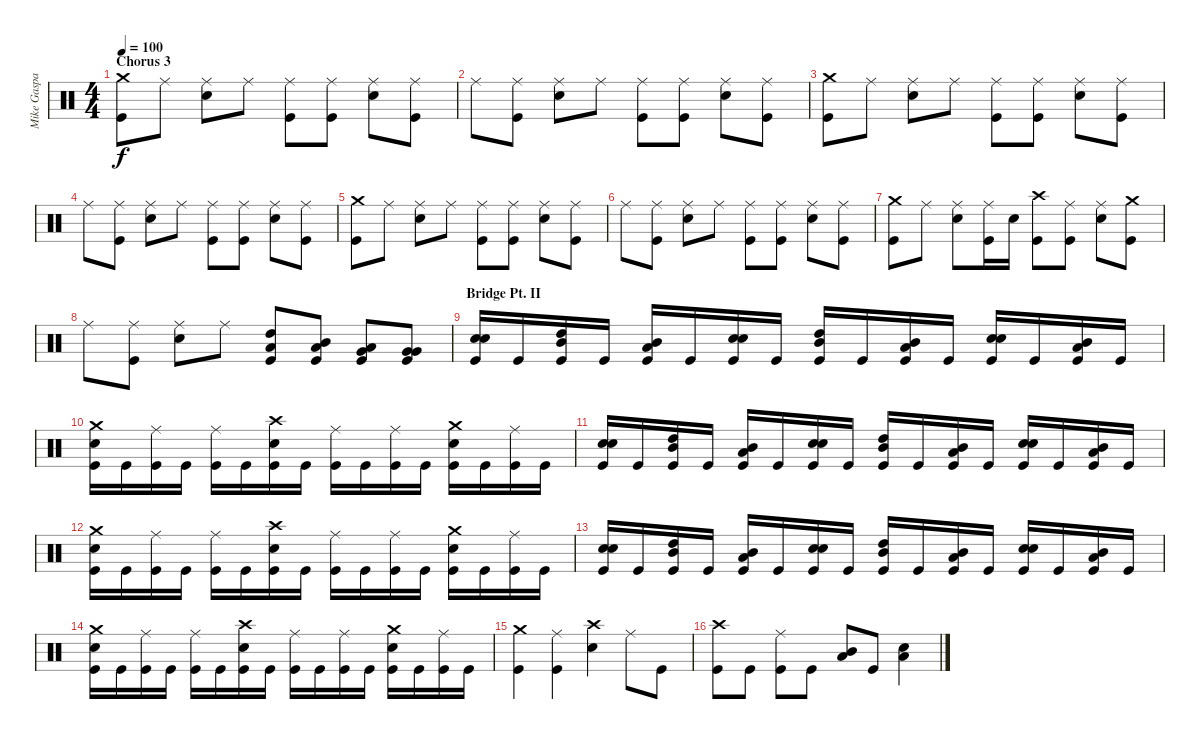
\track ("Mike Gaspar" "Mike Gaspa") {instrument percussion}
\staff {score}
\articulation defaults
\ts (4 4)
\section ("" "Chorus 3")
\tempo 100
\clef neutral
\ks c
("Crash medium (hit)" "Kick (hit)").8{dy f} "Ride (middle)".8 ("Ride (middle)" "Electric Snare (hit)").8 "Ride (middle)".8 ("Ride (middle)" "Kick (hit)").8 ("Ride (middle)" "Kick (hit)").8 ("Ride (middle)" "Electric Snare (hit)").8 ("Ride (middle)" "Kick (hit)").8 |
"Ride (middle)".8 ("Ride (middle)" "Kick (hit)").8 ("Ride (middle)" "Electric Snare (hit)").8 "Ride (middle)".8 ("Ride (middle)" "Kick (hit)").8 ("Ride (middle)" "Kick (hit)").8 ("Ride (middle)" "Electric Snare (hit)").8 ("Ride (middle)" "Kick (hit)").8 |
("Crash medium (hit)" "Kick (hit)").8 "Ride (middle)".8 ("Ride (middle)" "Electric Snare (hit)").8 "Ride (middle)".8 ("Ride (middle)" "Kick (hit)").8 ("Ride (middle)" "Kick (hit)").8 ("Ride (middle)" "Electric Snare (hit)").8 ("Ride (middle)" "Kick (hit)").8 |
"Ride (middle)".8 ("Ride (middle)" "Kick (hit)").8 ("Ride (middle)" "Electric Snare (hit)").8 "Ride (middle)".8 ("Ride (middle)" "Kick (hit)").8 ("Ride (middle)" "Kick (hit)").8 ("Ride (middle)" "Electric Snare (hit)").8 ("Ride (middle)" "Kick (hit)").8 |
("Crash medium (hit)" "Kick (hit)").8 "Ride (middle)".8 ("Ride (middle)" "Electric Snare (hit)").8 "Ride (middle)".8 ("Ride (middle)" "Kick (hit)").8 ("Ride (middle)" "Kick (hit)").8 ("Ride (middle)" "Electric Snare (hit)").8 ("Ride (middle)" "Kick (hit)").8 |
"Ride (middle)".8 ("Ride (middle)" "Kick (hit)").8 ("Ride (middle)" "Electric Snare (hit)").8 "Ride (middle)".8 ("Ride (middle)" "Kick (hit)").8 ("Ride (middle)" "Kick (hit)").8 ("Ride (middle)" "Electric Snare (hit)").8 ("Ride (middle)" "Kick (hit)").8 |
("Crash medium (hit)" "Kick (hit)").8 "Ride (middle)".8 ("Ride (middle)" "Electric Snare (hit)").8 ("Ride (middle)" "Kick (hit)").16 "Electric Snare (hit)".16 ("Crash high (hit)" "Kick (hit)").8 ("Ride (middle)" "Kick (hit)").8 ("Ride (middle)" "Electric Snare (hit)").8 ("Crash medium (hit)" "Kick (hit)").8 |
"Ride (middle)".8 ("Ride (middle)" "Kick (hit)").8 ("Ride (middle)" "Electric Snare (hit)").8 "Ride (middle)".8 ("High Tom (hit)" "Low Tom (hit)" "Kick (hit)").8 ("Mid Tom (hit)" "Low Tom (hit)" "Kick (hit)").8 ("Low Tom (hit)" "Very Low Tom (hit)" "Kick (hit)").8 ("Very Low Tom (hit)" "Very Low Tom (hit)" "Kick (hit)").8 |
\section ("" "Bridge Pt. II")
("Electric Snare (hit)" "Electric Snare (hit)" "Kick (hit)").16{bd 480} "Kick (hit)".16 ("High Tom (hit)" "Mid Tom (hit)" "Kick (hit)").16 "Kick (hit)".16 ("Low Tom (hit)" "Mid Tom (hit)" "Kick (hit)").16 "Kick (hit)".16 ("Electric Snare (hit)" "Electric Snare (hit)" "Kick (hit)").16{bd 480} "Kick (hit)".16 ("High Tom (hit)" "Mid Tom (hit)" "Kick (hit)").16 "Kick (hit)".16 ("Low Tom (hit)" "Mid Tom (hit)" "Kick (hit)").16 "Kick (hit)".16 ("Electric Snare (hit)" "Electric Snare (hit)" "Kick (hit)").16{bd 480} "Kick (hit)".16 ("Mid Tom (hit)" "Low Tom (hit)" "Kick (hit)").16 "Kick (hit)".16 |
("Crash medium (hit)" "Electric Snare (hit)" "Kick (hit)").16 "Kick (hit)".16 ("Ride (middle)" "Kick (hit)").16 "Kick (hit)".16 ("Ride (middle)" "Kick (hit)").16 "Kick (hit)".16 ("Crash high (hit)" "Electric Snare (hit)" "Kick (hit)").16 "Kick (hit)".16 ("Ride (middle)" "Kick (hit)").16 "Kick (hit)".16 ("Ride (middle)" "Kick (hit)").16 "Kick (hit)".16 ("Crash medium (hit)" "Electric Snare (hit)" "Kick (hit)").16 "Kick (hit)".16 ("Ride (middle)" "Kick (hit)").16 "Kick (hit)".16 |
("Electric Snare (hit)" "Electric Snare (hit)" "Kick (hit)").16{bd 480} "Kick (hit)".16 ("High Tom (hit)" "Mid Tom (hit)" "Kick (hit)").16 "Kick (hit)".16 ("Low Tom (hit)" "Mid Tom (hit)" "Kick (hit)").16 "Kick (hit)".16 ("Electric Snare (hit)" "Electric Snare (hit)" "Kick (hit)").16{bd 480} "Kick (hit)".16 ("High Tom (hit)" "Mid Tom (hit)" "Kick (hit)").16 "Kick (hit)".16 ("Low Tom (hit)" "Mid Tom (hit)" "Kick (hit)").16 "Kick (hit)".16 ("Electric Snare (hit)" "Electric Snare (hit)" "Kick (hit)").16{bd 480} "Kick (hit)".16 ("Mid Tom (hit)" "Low Tom (hit)" "Kick (hit)").16 "Kick (hit)".16 |
("Crash medium (hit)" "Electric Snare (hit)" "Kick (hit)").16 "Kick (hit)".16 ("Ride (middle)" "Kick (hit)").16 "Kick (hit)".16 ("Ride (middle)" "Kick (hit)").16 "Kick (hit)".16 ("Crash high (hit)" "Electric Snare (hit)" "Kick (hit)").16 "Kick (hit)".16 ("Ride (middle)" "Kick (hit)").16 "Kick (hit)".16 ("Ride (middle)" "Kick (hit)").16 "Kick (hit)".16 ("Crash medium (hit)" "Electric Snare (hit)" "Kick (hit)").16 "Kick (hit)".16 ("Ride (middle)" "Kick (hit)").16 "Kick (hit)".16 |
("Electric Snare (hit)" "Electric Snare (hit)" "Kick (hit)").16{bd 480} "Kick (hit)".16 ("High Tom (hit)" "Mid Tom (hit)" "Kick (hit)").16 "Kick (hit)".16 ("Low Tom (hit)" "Mid Tom (hit)" "Kick (hit)").16 "Kick (hit)".16 ("Electric Snare (hit)" "Electric Snare (hit)" "Kick (hit)").16{bd 480} "Kick (hit)".16 ("High Tom (hit)" "Mid Tom (hit)" "Kick (hit)").16 "Kick (hit)".16 ("Low Tom (hit)" "Mid Tom (hit)" "Kick (hit)").16 "Kick (hit)".16 ("Electric Snare (hit)" "Electric Snare (hit)" "Kick (hit)").16{bd 480} "Kick (hit)".16 ("Mid Tom (hit)" "Low Tom (hit)" "Kick (hit)").16 "Kick (hit)".16 |
("Crash medium (hit)" "Electric Snare (hit)" "Kick (hit)").16 "Kick (hit)".16 ("Ride (middle)" "Kick (hit)").16 "Kick (hit)".16 ("Ride (middle)" "Kick (hit)").16 "Kick (hit)".16 ("Crash high (hit)" "Electric Snare (hit)" "Kick (hit)").16 "Kick (hit)".16 ("Ride (middle)" "Kick (hit)").16 "Kick (hit)".16 ("Ride (middle)" "Kick (hit)").16 "Kick (hit)".16 ("Crash medium (hit)" "Electric Snare (hit)" "Kick (hit)").16 "Kick (hit)".16 ("Ride (middle)" "Kick (hit)").16 "Kick (hit)".16 |
("Crash medium (hit)" "Kick (hit)").4 ("Ride (middle)" "Kick (hit)").4 ("Crash high (hit)" "Electric Snare (hit)").4 "Ride (middle)".8 "Kick (hit)".8 |
("Crash high (hit)" "Kick (hit)").8 "Kick (hit)".8 ("Ride (middle)" "Kick (hit)").8 "Kick (hit)".8 ("Low Tom (hit)" "Mid Tom (hit)").8 "Kick (hit)".8 ("Low Tom (hit)" "Electric Snare (hit)").4
